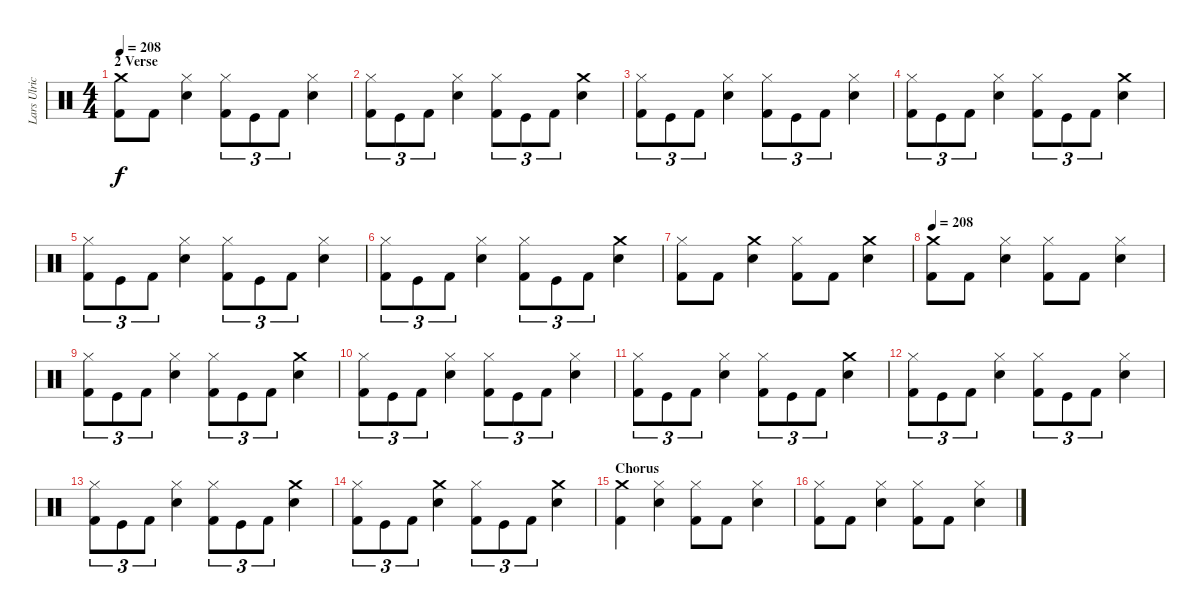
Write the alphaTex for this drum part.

\track ("Lars Ulrich (Drums)" "Lars Ulric") {instrument percussion}
\staff {score}
\articulation defaults
\ts (4 4)
\section ("" "2 Verse")
\tempo 208
\clef neutral
\ks c
("Crash medium (hit)" "Kick (hit) 2").8{dy f} "Kick (hit) 2".8 ("Snare (hit) 2" "Hi-Hat (closed)").4 ("Hi-Hat (closed)" "Kick (hit) 2").8{tu (3 2)} "Kick (hit)".8{tu (3 2)} "Kick (hit) 2".8{tu (3 2)} ("Hi-Hat (closed)" "Snare (hit) 2").4 |
("Hi-Hat (closed)" "Kick (hit) 2").8{tu (3 2)} "Kick (hit)".8{tu (3 2)} "Kick (hit) 2".8{tu (3 2)} ("Snare (hit) 2" "Hi-Hat (closed)").4 ("Hi-Hat (closed)" "Kick (hit) 2").8{tu (3 2)} "Kick (hit)".8{tu (3 2)} "Kick (hit) 2".8{tu (3 2)} ("Crash medium (hit)" "Snare (hit) 2").4 |
("Hi-Hat (closed)" "Kick (hit) 2").8{tu (3 2)} "Kick (hit)".8{tu (3 2)} "Kick (hit) 2".8{tu (3 2)} ("Snare (hit) 2" "Hi-Hat (closed)").4 ("Hi-Hat (closed)" "Kick (hit) 2").8{tu (3 2)} "Kick (hit)".8{tu (3 2)} "Kick (hit) 2".8{tu (3 2)} ("Hi-Hat (closed)" "Snare (hit) 2").4 |
("Hi-Hat (closed)" "Kick (hit) 2").8{tu (3 2)} "Kick (hit)".8{tu (3 2)} "Kick (hit) 2".8{tu (3 2)} ("Snare (hit) 2" "Hi-Hat (closed)").4 ("Hi-Hat (closed)" "Kick (hit) 2").8{tu (3 2)} "Kick (hit)".8{tu (3 2)} "Kick (hit) 2".8{tu (3 2)} ("Crash medium (hit)" "Snare (hit) 2").4 |
("Hi-Hat (closed)" "Kick (hit) 2").8{tu (3 2)} "Kick (hit)".8{tu (3 2)} "Kick (hit) 2".8{tu (3 2)} ("Snare (hit) 2" "Hi-Hat (closed)").4 ("Hi-Hat (closed)" "Kick (hit) 2").8{tu (3 2)} "Kick (hit)".8{tu (3 2)} "Kick (hit) 2".8{tu (3 2)} ("Hi-Hat (closed)" "Snare (hit) 2").4 |
("Hi-Hat (closed)" "Kick (hit) 2").8{tu (3 2)} "Kick (hit)".8{tu (3 2)} "Kick (hit) 2".8{tu (3 2)} ("Snare (hit) 2" "Hi-Hat (closed)").4 ("Hi-Hat (closed)" "Kick (hit) 2").8{tu (3 2)} "Kick (hit)".8{tu (3 2)} "Kick (hit) 2".8{tu (3 2)} ("Crash medium (hit)" "Snare (hit) 2").4 |
("Kick (hit) 2" "Hi-Hat (closed)").8 "Kick (hit) 2".8 ("Crash medium (hit)" "Snare (hit) 2").4 ("Kick (hit) 2" "Hi-Hat (closed)").8 "Kick (hit) 2".8 ("Crash medium (hit)" "Snare (hit) 2").4 |
\tempo 208
("Crash medium (hit)" "Kick (hit) 2").8 "Kick (hit) 2".8 ("Hi-Hat (closed)" "Snare (hit) 2").4 ("Hi-Hat (closed)" "Kick (hit) 2").8 "Kick (hit) 2".8 ("Snare (hit) 2" "Hi-Hat (closed)").4 |
("Hi-Hat (closed)" "Kick (hit) 2").8{tu (3 2)} "Kick (hit)".8{tu (3 2)} "Kick (hit) 2".8{tu (3 2)} ("Snare (hit) 2" "Hi-Hat (closed)").4 ("Hi-Hat (closed)" "Kick (hit) 2").8{tu (3 2)} "Kick (hit)".8{tu (3 2)} "Kick (hit) 2".8{tu (3 2)} ("Crash medium (hit)" "Snare (hit) 2").4 |
("Hi-Hat (closed)" "Kick (hit) 2").8{tu (3 2)} "Kick (hit)".8{tu (3 2)} "Kick (hit) 2".8{tu (3 2)} ("Snare (hit) 2" "Hi-Hat (closed)").4 ("Hi-Hat (closed)" "Kick (hit) 2").8{tu (3 2)} "Kick (hit)".8{tu (3 2)} "Kick (hit) 2".8{tu (3 2)} ("Hi-Hat (closed)" "Snare (hit) 2").4 |
("Hi-Hat (closed)" "Kick (hit) 2").8{tu (3 2)} "Kick (hit)".8{tu (3 2)} "Kick (hit) 2".8{tu (3 2)} ("Snare (hit) 2" "Hi-Hat (closed)").4 ("Hi-Hat (closed)" "Kick (hit) 2").8{tu (3 2)} "Kick (hit)".8{tu (3 2)} "Kick (hit) 2".8{tu (3 2)} ("Crash medium (hit)" "Snare (hit) 2").4 |
("Hi-Hat (closed)" "Kick (hit) 2").8{tu (3 2)} "Kick (hit)".8{tu (3 2)} "Kick (hit) 2".8{tu (3 2)} ("Snare (hit) 2" "Hi-Hat (closed)").4 ("Hi-Hat (closed)" "Kick (hit) 2").8{tu (3 2)} "Kick (hit)".8{tu (3 2)} "Kick (hit) 2".8{tu (3 2)} ("Hi-Hat (closed)" "Snare (hit) 2").4 |
("Hi-Hat (closed)" "Kick (hit) 2").8{tu (3 2)} "Kick (hit)".8{tu (3 2)} "Kick (hit) 2".8{tu (3 2)} ("Snare (hit) 2" "Hi-Hat (closed)").4 ("Hi-Hat (closed)" "Kick (hit) 2").8{tu (3 2)} "Kick (hit)".8{tu (3 2)} "Kick (hit) 2".8{tu (3 2)} ("Crash medium (hit)" "Snare (hit) 2").4 |
("Hi-Hat (closed)" "Kick (hit) 2").8{tu (3 2)} "Kick (hit)".8{tu (3 2)} "Kick (hit) 2".8{tu (3 2)} ("Crash medium (hit)" "Snare (hit) 2").4 ("Hi-Hat (closed)" "Kick (hit) 2").8{tu (3 2)} "Kick (hit)".8{tu (3 2)} "Kick (hit) 2".8{tu (3 2)} ("Crash medium (hit)" "Snare (hit) 2").4 |
\section ("" "Chorus")
("Kick (hit) 2" "Crash medium (hit)").4 ("Hi-Hat (closed)" "Snare (hit) 2").4 ("Hi-Hat (closed)" "Kick (hit) 2").8 "Kick (hit) 2".8 ("Snare (hit) 2" "Hi-Hat (closed)").4 |
("Kick (hit) 2" "Hi-Hat (closed)").8 "Kick (hit) 2".8 ("Snare (hit) 2" "Hi-Hat (closed)").4 ("Kick (hit) 2" "Hi-Hat (closed)").8 "Kick (hit) 2".8 ("Snare (hit) 2" "Hi-Hat (closed)").4
